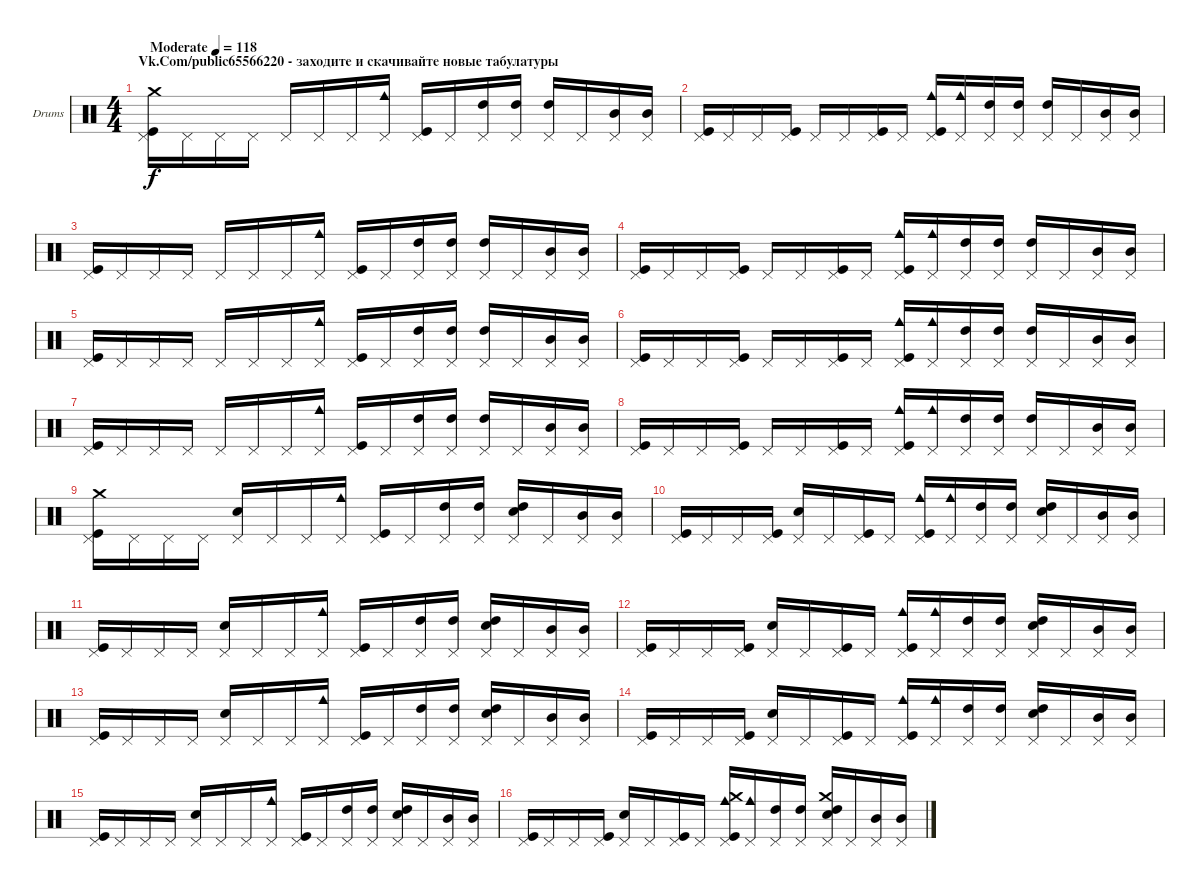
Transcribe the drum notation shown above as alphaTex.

\bracketExtendMode groupsimilarinstruments
\firstSystemTrackNameOrientation horizontal
\otherSystemsTrackNameOrientation horizontal
\track ("Уданые" "Drums") {instrument percussion}
\staff {score}
\articulation defaults
\ts (4 4)
\beaming (8 2 2 2 2)
\section ("" "Vk.Com/public65566220 - заходите и скачивайте новые табулатуры")
\tempo (118 "Moderate")
\clef neutral
\ks c
("Pedal Hi-Hat (hit)" "Kick (hit)" "Crash medium (hit)").16{dy f} "Pedal Hi-Hat (hit)".16 "Pedal Hi-Hat (hit)".16 "Pedal Hi-Hat (hit)".16 "Pedal Hi-Hat (hit)".16 "Pedal Hi-Hat (hit)".16 "Pedal Hi-Hat (hit)".16 ("Pedal Hi-Hat (hit)" "Cowbell medium (hit)").16 ("Pedal Hi-Hat (hit)" "Kick (hit)").16 "Pedal Hi-Hat (hit)".16 ("Pedal Hi-Hat (hit)" "High Tom (hit)").16 ("Pedal Hi-Hat (hit)" "High Tom (hit)").16 ("Pedal Hi-Hat (hit)" "High Tom (hit)").16 "Pedal Hi-Hat (hit)".16 ("Pedal Hi-Hat (hit)" "Mid Tom (hit)").16 ("Pedal Hi-Hat (hit)" "Mid Tom (hit)").16 |
("Pedal Hi-Hat (hit)" "Kick (hit)").16 "Pedal Hi-Hat (hit)".16 "Pedal Hi-Hat (hit)".16 ("Pedal Hi-Hat (hit)" "Kick (hit)").16 "Pedal Hi-Hat (hit)".16 "Pedal Hi-Hat (hit)".16 ("Pedal Hi-Hat (hit)" "Kick (hit)").16 "Pedal Hi-Hat (hit)".16 ("Pedal Hi-Hat (hit)" "Kick (hit)" "Cowbell medium (hit)").16 ("Pedal Hi-Hat (hit)" "Cowbell medium (hit)").16 ("Pedal Hi-Hat (hit)" "High Tom (hit)").16 ("Pedal Hi-Hat (hit)" "High Tom (hit)").16 ("Pedal Hi-Hat (hit)" "High Tom (hit)").16 "Pedal Hi-Hat (hit)".16 ("Pedal Hi-Hat (hit)" "Mid Tom (hit)").16 ("Pedal Hi-Hat (hit)" "Mid Tom (hit)").16 |
("Pedal Hi-Hat (hit)" "Kick (hit)").16 "Pedal Hi-Hat (hit)".16 "Pedal Hi-Hat (hit)".16 "Pedal Hi-Hat (hit)".16 "Pedal Hi-Hat (hit)".16 "Pedal Hi-Hat (hit)".16 "Pedal Hi-Hat (hit)".16 ("Pedal Hi-Hat (hit)" "Cowbell medium (hit)").16 ("Pedal Hi-Hat (hit)" "Kick (hit)").16 "Pedal Hi-Hat (hit)".16 ("Pedal Hi-Hat (hit)" "High Tom (hit)").16 ("Pedal Hi-Hat (hit)" "High Tom (hit)").16 ("Pedal Hi-Hat (hit)" "High Tom (hit)").16 "Pedal Hi-Hat (hit)".16 ("Pedal Hi-Hat (hit)" "Mid Tom (hit)").16 ("Pedal Hi-Hat (hit)" "Mid Tom (hit)").16 |
("Pedal Hi-Hat (hit)" "Kick (hit)").16 "Pedal Hi-Hat (hit)".16 "Pedal Hi-Hat (hit)".16 ("Pedal Hi-Hat (hit)" "Kick (hit)").16 "Pedal Hi-Hat (hit)".16 "Pedal Hi-Hat (hit)".16 ("Pedal Hi-Hat (hit)" "Kick (hit)").16 "Pedal Hi-Hat (hit)".16 ("Pedal Hi-Hat (hit)" "Kick (hit)" "Cowbell medium (hit)").16 ("Pedal Hi-Hat (hit)" "Cowbell medium (hit)").16 ("Pedal Hi-Hat (hit)" "High Tom (hit)").16 ("Pedal Hi-Hat (hit)" "High Tom (hit)").16 ("Pedal Hi-Hat (hit)" "High Tom (hit)").16 "Pedal Hi-Hat (hit)".16 ("Pedal Hi-Hat (hit)" "Mid Tom (hit)").16 ("Pedal Hi-Hat (hit)" "Mid Tom (hit)").16 |
("Pedal Hi-Hat (hit)" "Kick (hit)").16 "Pedal Hi-Hat (hit)".16 "Pedal Hi-Hat (hit)".16 "Pedal Hi-Hat (hit)".16 "Pedal Hi-Hat (hit)".16 "Pedal Hi-Hat (hit)".16 "Pedal Hi-Hat (hit)".16 ("Pedal Hi-Hat (hit)" "Cowbell medium (hit)").16 ("Pedal Hi-Hat (hit)" "Kick (hit)").16 "Pedal Hi-Hat (hit)".16 ("Pedal Hi-Hat (hit)" "High Tom (hit)").16 ("Pedal Hi-Hat (hit)" "High Tom (hit)").16 ("Pedal Hi-Hat (hit)" "High Tom (hit)").16 "Pedal Hi-Hat (hit)".16 ("Pedal Hi-Hat (hit)" "Mid Tom (hit)").16 ("Pedal Hi-Hat (hit)" "Mid Tom (hit)").16 |
("Pedal Hi-Hat (hit)" "Kick (hit)").16 "Pedal Hi-Hat (hit)".16 "Pedal Hi-Hat (hit)".16 ("Pedal Hi-Hat (hit)" "Kick (hit)").16 "Pedal Hi-Hat (hit)".16 "Pedal Hi-Hat (hit)".16 ("Pedal Hi-Hat (hit)" "Kick (hit)").16 "Pedal Hi-Hat (hit)".16 ("Pedal Hi-Hat (hit)" "Kick (hit)" "Cowbell medium (hit)").16 ("Pedal Hi-Hat (hit)" "Cowbell medium (hit)").16 ("Pedal Hi-Hat (hit)" "High Tom (hit)").16 ("Pedal Hi-Hat (hit)" "High Tom (hit)").16 ("Pedal Hi-Hat (hit)" "High Tom (hit)").16 "Pedal Hi-Hat (hit)".16 ("Pedal Hi-Hat (hit)" "Mid Tom (hit)").16 ("Pedal Hi-Hat (hit)" "Mid Tom (hit)").16 |
("Pedal Hi-Hat (hit)" "Kick (hit)").16 "Pedal Hi-Hat (hit)".16 "Pedal Hi-Hat (hit)".16 "Pedal Hi-Hat (hit)".16 "Pedal Hi-Hat (hit)".16 "Pedal Hi-Hat (hit)".16 "Pedal Hi-Hat (hit)".16 ("Pedal Hi-Hat (hit)" "Cowbell medium (hit)").16 ("Pedal Hi-Hat (hit)" "Kick (hit)").16 "Pedal Hi-Hat (hit)".16 ("Pedal Hi-Hat (hit)" "High Tom (hit)").16 ("Pedal Hi-Hat (hit)" "High Tom (hit)").16 ("Pedal Hi-Hat (hit)" "High Tom (hit)").16 "Pedal Hi-Hat (hit)".16 ("Pedal Hi-Hat (hit)" "Mid Tom (hit)").16 ("Pedal Hi-Hat (hit)" "Mid Tom (hit)").16 |
("Pedal Hi-Hat (hit)" "Kick (hit)").16 "Pedal Hi-Hat (hit)".16 "Pedal Hi-Hat (hit)".16 ("Pedal Hi-Hat (hit)" "Kick (hit)").16 "Pedal Hi-Hat (hit)".16 "Pedal Hi-Hat (hit)".16 ("Pedal Hi-Hat (hit)" "Kick (hit)").16 "Pedal Hi-Hat (hit)".16 ("Pedal Hi-Hat (hit)" "Kick (hit)" "Cowbell medium (hit)").16 ("Pedal Hi-Hat (hit)" "Cowbell medium (hit)").16 ("Pedal Hi-Hat (hit)" "High Tom (hit)").16 ("Pedal Hi-Hat (hit)" "High Tom (hit)").16 ("Pedal Hi-Hat (hit)" "High Tom (hit)").16 "Pedal Hi-Hat (hit)".16 ("Pedal Hi-Hat (hit)" "Mid Tom (hit)").16 ("Pedal Hi-Hat (hit)" "Mid Tom (hit)").16 |
("Pedal Hi-Hat (hit)" "Kick (hit)" "Crash medium (hit)").16 "Pedal Hi-Hat (hit)".16 "Pedal Hi-Hat (hit)".16 "Pedal Hi-Hat (hit)".16 ("Pedal Hi-Hat (hit)" "Snare (hit) 2").16 "Pedal Hi-Hat (hit)".16 "Pedal Hi-Hat (hit)".16 ("Pedal Hi-Hat (hit)" "Cowbell medium (hit)").16 ("Pedal Hi-Hat (hit)" "Kick (hit)").16 "Pedal Hi-Hat (hit)".16 ("Pedal Hi-Hat (hit)" "High Tom (hit)").16 ("Pedal Hi-Hat (hit)" "High Tom (hit)").16 ("Pedal Hi-Hat (hit)" "High Tom (hit)" "Snare (hit) 2").16 "Pedal Hi-Hat (hit)".16 ("Pedal Hi-Hat (hit)" "Mid Tom (hit)").16 ("Pedal Hi-Hat (hit)" "Mid Tom (hit)").16 |
("Pedal Hi-Hat (hit)" "Kick (hit)").16 "Pedal Hi-Hat (hit)".16 "Pedal Hi-Hat (hit)".16 ("Pedal Hi-Hat (hit)" "Kick (hit)").16 ("Pedal Hi-Hat (hit)" "Snare (hit) 2").16 "Pedal Hi-Hat (hit)".16 ("Pedal Hi-Hat (hit)" "Kick (hit)").16 "Pedal Hi-Hat (hit)".16 ("Pedal Hi-Hat (hit)" "Kick (hit)" "Cowbell medium (hit)").16 ("Pedal Hi-Hat (hit)" "Cowbell medium (hit)").16 ("Pedal Hi-Hat (hit)" "High Tom (hit)").16 ("Pedal Hi-Hat (hit)" "High Tom (hit)").16 ("Pedal Hi-Hat (hit)" "High Tom (hit)" "Snare (hit) 2").16 "Pedal Hi-Hat (hit)".16 ("Pedal Hi-Hat (hit)" "Mid Tom (hit)").16 ("Pedal Hi-Hat (hit)" "Mid Tom (hit)").16 |
("Pedal Hi-Hat (hit)" "Kick (hit)").16 "Pedal Hi-Hat (hit)".16 "Pedal Hi-Hat (hit)".16 "Pedal Hi-Hat (hit)".16 ("Pedal Hi-Hat (hit)" "Snare (hit) 2").16 "Pedal Hi-Hat (hit)".16 "Pedal Hi-Hat (hit)".16 ("Pedal Hi-Hat (hit)" "Cowbell medium (hit)").16 ("Pedal Hi-Hat (hit)" "Kick (hit)").16 "Pedal Hi-Hat (hit)".16 ("Pedal Hi-Hat (hit)" "High Tom (hit)").16 ("Pedal Hi-Hat (hit)" "High Tom (hit)").16 ("Pedal Hi-Hat (hit)" "High Tom (hit)" "Snare (hit) 2").16 "Pedal Hi-Hat (hit)".16 ("Pedal Hi-Hat (hit)" "Mid Tom (hit)").16 ("Pedal Hi-Hat (hit)" "Mid Tom (hit)").16 |
("Pedal Hi-Hat (hit)" "Kick (hit)").16 "Pedal Hi-Hat (hit)".16 "Pedal Hi-Hat (hit)".16 ("Pedal Hi-Hat (hit)" "Kick (hit)").16 ("Pedal Hi-Hat (hit)" "Snare (hit) 2").16 "Pedal Hi-Hat (hit)".16 ("Pedal Hi-Hat (hit)" "Kick (hit)").16 "Pedal Hi-Hat (hit)".16 ("Pedal Hi-Hat (hit)" "Kick (hit)" "Cowbell medium (hit)").16 ("Pedal Hi-Hat (hit)" "Cowbell medium (hit)").16 ("Pedal Hi-Hat (hit)" "High Tom (hit)").16 ("Pedal Hi-Hat (hit)" "High Tom (hit)").16 ("Pedal Hi-Hat (hit)" "High Tom (hit)" "Snare (hit) 2").16 "Pedal Hi-Hat (hit)".16 ("Pedal Hi-Hat (hit)" "Mid Tom (hit)").16 ("Pedal Hi-Hat (hit)" "Mid Tom (hit)").16 |
("Pedal Hi-Hat (hit)" "Kick (hit)").16 "Pedal Hi-Hat (hit)".16 "Pedal Hi-Hat (hit)".16 "Pedal Hi-Hat (hit)".16 ("Pedal Hi-Hat (hit)" "Snare (hit) 2").16 "Pedal Hi-Hat (hit)".16 "Pedal Hi-Hat (hit)".16 ("Pedal Hi-Hat (hit)" "Cowbell medium (hit)").16 ("Pedal Hi-Hat (hit)" "Kick (hit)").16 "Pedal Hi-Hat (hit)".16 ("Pedal Hi-Hat (hit)" "High Tom (hit)").16 ("Pedal Hi-Hat (hit)" "High Tom (hit)").16 ("Pedal Hi-Hat (hit)" "High Tom (hit)" "Snare (hit) 2").16 "Pedal Hi-Hat (hit)".16 ("Pedal Hi-Hat (hit)" "Mid Tom (hit)").16 ("Pedal Hi-Hat (hit)" "Mid Tom (hit)").16 |
("Pedal Hi-Hat (hit)" "Kick (hit)").16 "Pedal Hi-Hat (hit)".16 "Pedal Hi-Hat (hit)".16 ("Pedal Hi-Hat (hit)" "Kick (hit)").16 ("Pedal Hi-Hat (hit)" "Snare (hit) 2").16 "Pedal Hi-Hat (hit)".16 ("Pedal Hi-Hat (hit)" "Kick (hit)").16 "Pedal Hi-Hat (hit)".16 ("Pedal Hi-Hat (hit)" "Kick (hit)" "Cowbell medium (hit)").16 ("Pedal Hi-Hat (hit)" "Cowbell medium (hit)").16 ("Pedal Hi-Hat (hit)" "High Tom (hit)").16 ("Pedal Hi-Hat (hit)" "High Tom (hit)").16 ("Pedal Hi-Hat (hit)" "High Tom (hit)" "Snare (hit) 2").16 "Pedal Hi-Hat (hit)".16 ("Pedal Hi-Hat (hit)" "Mid Tom (hit)").16 ("Pedal Hi-Hat (hit)" "Mid Tom (hit)").16 |
("Pedal Hi-Hat (hit)" "Kick (hit)").16 "Pedal Hi-Hat (hit)".16 "Pedal Hi-Hat (hit)".16 "Pedal Hi-Hat (hit)".16 ("Pedal Hi-Hat (hit)" "Snare (hit) 2").16 "Pedal Hi-Hat (hit)".16 "Pedal Hi-Hat (hit)".16 ("Pedal Hi-Hat (hit)" "Cowbell medium (hit)").16 ("Pedal Hi-Hat (hit)" "Kick (hit)").16 "Pedal Hi-Hat (hit)".16 ("Pedal Hi-Hat (hit)" "High Tom (hit)").16 ("Pedal Hi-Hat (hit)" "High Tom (hit)").16 ("Pedal Hi-Hat (hit)" "High Tom (hit)" "Snare (hit) 2").16 "Pedal Hi-Hat (hit)".16 ("Pedal Hi-Hat (hit)" "Mid Tom (hit)").16 ("Pedal Hi-Hat (hit)" "Mid Tom (hit)").16 |
("Pedal Hi-Hat (hit)" "Kick (hit)").16 "Pedal Hi-Hat (hit)".16 "Pedal Hi-Hat (hit)".16 ("Pedal Hi-Hat (hit)" "Kick (hit)").16 ("Pedal Hi-Hat (hit)" "Snare (hit) 2").16 "Pedal Hi-Hat (hit)".16 ("Pedal Hi-Hat (hit)" "Kick (hit)").16 "Pedal Hi-Hat (hit)".16 ("Pedal Hi-Hat (hit)" "Kick (hit)" "Cowbell medium (hit)" "Crash medium (hit)").16 ("Pedal Hi-Hat (hit)" "Cowbell medium (hit)").16 ("Pedal Hi-Hat (hit)" "High Tom (hit)").16 ("Pedal Hi-Hat (hit)" "High Tom (hit)").16 ("Pedal Hi-Hat (hit)" "High Tom (hit)" "Snare (hit) 2" "Crash medium (hit)").16 "Pedal Hi-Hat (hit)".16 ("Pedal Hi-Hat (hit)" "Mid Tom (hit)").16 ("Pedal Hi-Hat (hit)" "Mid Tom (hit)").16
